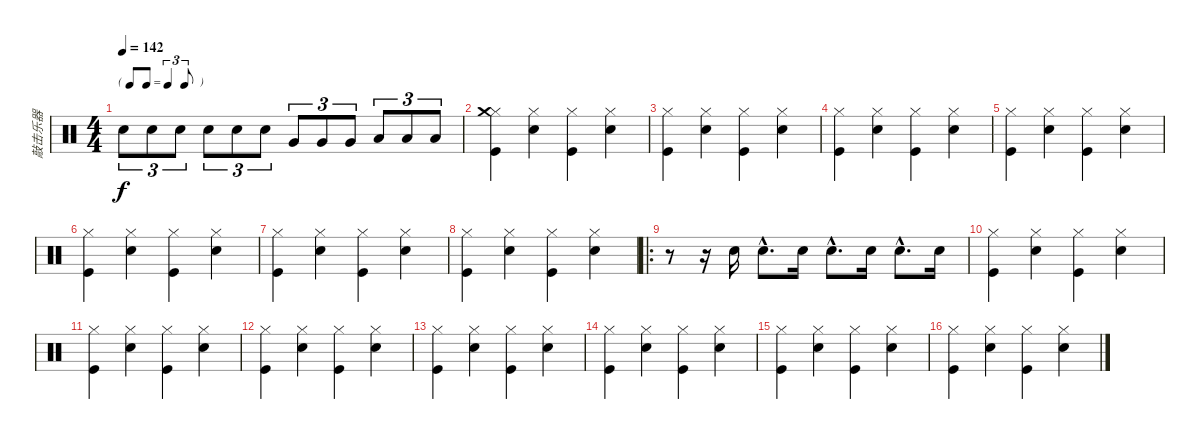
\track ("敲击乐器" "敲击乐器") {instrument percussion}
\staff {score}
\articulation defaults
\ts (4 4)
\tf triplet8th
\tempo 142
\clef neutral
\ks c "Snare (hit) 2".8{tu (3 2) dy f} "Snare (hit) 2".8{tu (3 2)} "Snare (hit) 2".8{tu (3 2)} "Snare (hit) 2".8{tu (3 2)} "Snare (hit) 2".8{tu (3 2)} "Snare (hit) 2".8{tu (3 2)} "Very Low Tom (hit)".8{tu (3 2)} "Very Low Tom (hit)".8{tu (3 2)} "Very Low Tom (hit)".8{tu (3 2)} "Low Floor Tom (hit)".8{tu (3 2)} "Low Floor Tom (hit)".8{tu (3 2)} "Low Floor Tom (hit)".8{tu (3 2)}
|
("Hi-Hat (closed)" "Kick (hit)" "Crash medium (hit)").4 ("Hi-Hat (closed)" "Electric Snare (hit)").4 ("Hi-Hat (closed)" "Kick (hit)").4 ("Hi-Hat (closed)" "Electric Snare (hit)").4 |
("Hi-Hat (closed)" "Kick (hit)").4 ("Hi-Hat (closed)" "Electric Snare (hit)").4 ("Hi-Hat (closed)" "Kick (hit)").4 ("Hi-Hat (closed)" "Electric Snare (hit)").4 |
("Hi-Hat (closed)" "Kick (hit)").4 ("Hi-Hat (closed)" "Electric Snare (hit)").4 ("Hi-Hat (closed)" "Kick (hit)").4 ("Hi-Hat (closed)" "Electric Snare (hit)").4 |
("Hi-Hat (closed)" "Kick (hit)").4 ("Hi-Hat (closed)" "Electric Snare (hit)").4 ("Hi-Hat (closed)" "Kick (hit)").4 ("Hi-Hat (closed)" "Electric Snare (hit)").4 |
("Hi-Hat (closed)" "Kick (hit)").4 ("Hi-Hat (closed)" "Electric Snare (hit)").4 ("Hi-Hat (closed)" "Kick (hit)").4 ("Hi-Hat (closed)" "Electric Snare (hit)").4 |
("Hi-Hat (closed)" "Kick (hit)").4 ("Hi-Hat (closed)" "Electric Snare (hit)").4 ("Hi-Hat (closed)" "Kick (hit)").4 ("Hi-Hat (closed)" "Electric Snare (hit)").4 |
("Hi-Hat (closed)" "Kick (hit)").4 ("Hi-Hat (closed)" "Electric Snare (hit)").4 ("Hi-Hat (closed)" "Kick (hit)").4 ("Hi-Hat (closed)" "Electric Snare (hit)").4 |
\ro
r.8 r.16 "Electric Snare (hit)".16 "Electric Snare (hit)"{hac}.8{d} "Electric Snare (hit)".16 "Electric Snare (hit)"{hac}.8{d} "Electric Snare (hit)".16 "Electric Snare (hit)"{hac}.8{d} "Electric Snare (hit)".16 |
("Hi-Hat (closed)" "Kick (hit)").4 ("Hi-Hat (closed)" "Electric Snare (hit)").4 ("Hi-Hat (closed)" "Kick (hit)").4 ("Hi-Hat (closed)" "Electric Snare (hit)").4 |
("Hi-Hat (closed)" "Kick (hit)").4 ("Hi-Hat (closed)" "Electric Snare (hit)").4 ("Hi-Hat (closed)" "Kick (hit)").4 ("Hi-Hat (closed)" "Electric Snare (hit)").4 |
("Hi-Hat (closed)" "Kick (hit)").4 ("Hi-Hat (closed)" "Electric Snare (hit)").4 ("Hi-Hat (closed)" "Kick (hit)").4 ("Hi-Hat (closed)" "Electric Snare (hit)").4 |
("Hi-Hat (closed)" "Kick (hit)").4 ("Hi-Hat (closed)" "Electric Snare (hit)").4 ("Hi-Hat (closed)" "Kick (hit)").4 ("Hi-Hat (closed)" "Electric Snare (hit)").4 |
("Hi-Hat (closed)" "Kick (hit)").4 ("Hi-Hat (closed)" "Electric Snare (hit)").4 ("Hi-Hat (closed)" "Kick (hit)").4 ("Hi-Hat (closed)" "Electric Snare (hit)").4 |
("Hi-Hat (closed)" "Kick (hit)").4 ("Hi-Hat (closed)" "Electric Snare (hit)").4 ("Hi-Hat (closed)" "Kick (hit)").4 ("Hi-Hat (closed)" "Electric Snare (hit)").4 |
("Hi-Hat (closed)" "Kick (hit)").4 ("Hi-Hat (closed)" "Electric Snare (hit)").4 ("Hi-Hat (closed)" "Kick (hit)").4 ("Hi-Hat (closed)" "Electric Snare (hit)").4
